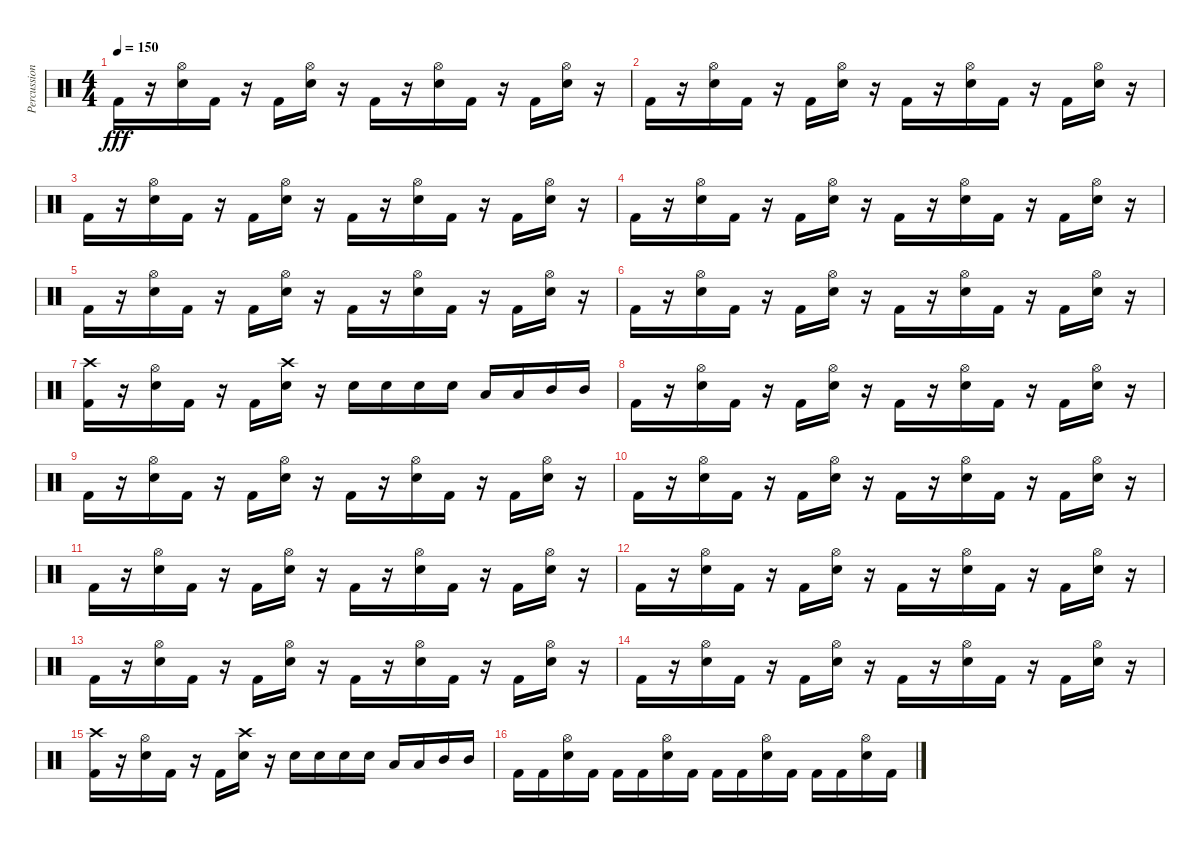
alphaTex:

\track ("Percussion" "Percussion") {instrument percussion}
\staff {score}
\articulation defaults
\ts (4 4)
\tempo 150
\clef neutral
\ks c "Kick (hit) 2".16{dy fff}
r.16 ("Snare (hit) 2" "Hi-Hat (open)").16 "Kick (hit) 2".16 r.16 "Kick (hit) 2".16 ("Snare (hit) 2" "Hi-Hat (open)").16 r.16 "Kick (hit) 2".16 r.16 ("Snare (hit) 2" "Hi-Hat (open)").16 "Kick (hit) 2".16 r.16 "Kick (hit) 2".16 ("Snare (hit) 2" "Hi-Hat (open)").16 r.16 |
"Kick (hit) 2".16 r.16 ("Snare (hit) 2" "Hi-Hat (open)").16 "Kick (hit) 2".16 r.16 "Kick (hit) 2".16 ("Snare (hit) 2" "Hi-Hat (open)").16 r.16 "Kick (hit) 2".16 r.16 ("Snare (hit) 2" "Hi-Hat (open)").16 "Kick (hit) 2".16 r.16 "Kick (hit) 2".16 ("Snare (hit) 2" "Hi-Hat (open)").16 r.16 |
"Kick (hit) 2".16 r.16 ("Snare (hit) 2" "Hi-Hat (open)").16 "Kick (hit) 2".16 r.16 "Kick (hit) 2".16 ("Snare (hit) 2" "Hi-Hat (open)").16 r.16 "Kick (hit) 2".16 r.16 ("Snare (hit) 2" "Hi-Hat (open)").16 "Kick (hit) 2".16 r.16 "Kick (hit) 2".16 ("Snare (hit) 2" "Hi-Hat (open)").16 r.16 |
"Kick (hit) 2".16 r.16 ("Snare (hit) 2" "Hi-Hat (open)").16 "Kick (hit) 2".16 r.16 "Kick (hit) 2".16 ("Snare (hit) 2" "Hi-Hat (open)").16 r.16 "Kick (hit) 2".16 r.16 ("Snare (hit) 2" "Hi-Hat (open)").16 "Kick (hit) 2".16 r.16 "Kick (hit) 2".16 ("Snare (hit) 2" "Hi-Hat (open)").16 r.16 |
"Kick (hit) 2".16 r.16 ("Snare (hit) 2" "Hi-Hat (open)").16 "Kick (hit) 2".16 r.16 "Kick (hit) 2".16 ("Snare (hit) 2" "Hi-Hat (open)").16 r.16 "Kick (hit) 2".16 r.16 ("Snare (hit) 2" "Hi-Hat (open)").16 "Kick (hit) 2".16 r.16 "Kick (hit) 2".16 ("Snare (hit) 2" "Hi-Hat (open)").16 r.16 |
"Kick (hit) 2".16 r.16 ("Snare (hit) 2" "Hi-Hat (open)").16 "Kick (hit) 2".16 r.16 "Kick (hit) 2".16 ("Snare (hit) 2" "Hi-Hat (open)").16 r.16 "Kick (hit) 2".16 r.16 ("Snare (hit) 2" "Hi-Hat (open)").16 "Kick (hit) 2".16 r.16 "Kick (hit) 2".16 ("Snare (hit) 2" "Hi-Hat (open)").16 r.16 |
("Kick (hit) 2" "Crash high (hit)").16 r.16 ("Snare (hit) 2" "Hi-Hat (open)").16 "Kick (hit) 2".16 r.16 "Kick (hit) 2".16 ("Snare (hit) 2" "Crash high (hit)").16 r.16 "Snare (hit) 2".16 "Snare (hit) 2".16 "Snare (hit) 2".16 "Snare (hit) 2".16 "Low Tom (hit)".16 "Low Tom (hit)".16 "Mid Tom (hit)".16 "Mid Tom (hit)".16 |
"Kick (hit) 2".16 r.16 ("Snare (hit) 2" "Hi-Hat (open)").16 "Kick (hit) 2".16 r.16 "Kick (hit) 2".16 ("Snare (hit) 2" "Hi-Hat (open)").16 r.16 "Kick (hit) 2".16 r.16 ("Snare (hit) 2" "Hi-Hat (open)").16 "Kick (hit) 2".16 r.16 "Kick (hit) 2".16 ("Snare (hit) 2" "Hi-Hat (open)").16 r.16 |
"Kick (hit) 2".16 r.16 ("Snare (hit) 2" "Hi-Hat (open)").16 "Kick (hit) 2".16 r.16 "Kick (hit) 2".16 ("Snare (hit) 2" "Hi-Hat (open)").16 r.16 "Kick (hit) 2".16 r.16 ("Snare (hit) 2" "Hi-Hat (open)").16 "Kick (hit) 2".16 r.16 "Kick (hit) 2".16 ("Snare (hit) 2" "Hi-Hat (open)").16 r.16 |
"Kick (hit) 2".16 r.16 ("Snare (hit) 2" "Hi-Hat (open)").16 "Kick (hit) 2".16 r.16 "Kick (hit) 2".16 ("Snare (hit) 2" "Hi-Hat (open)").16 r.16 "Kick (hit) 2".16 r.16 ("Snare (hit) 2" "Hi-Hat (open)").16 "Kick (hit) 2".16 r.16 "Kick (hit) 2".16 ("Snare (hit) 2" "Hi-Hat (open)").16 r.16 |
"Kick (hit) 2".16 r.16 ("Snare (hit) 2" "Hi-Hat (open)").16 "Kick (hit) 2".16 r.16 "Kick (hit) 2".16 ("Snare (hit) 2" "Hi-Hat (open)").16 r.16 "Kick (hit) 2".16 r.16 ("Snare (hit) 2" "Hi-Hat (open)").16 "Kick (hit) 2".16 r.16 "Kick (hit) 2".16 ("Snare (hit) 2" "Hi-Hat (open)").16 r.16 |
"Kick (hit) 2".16 r.16 ("Snare (hit) 2" "Hi-Hat (open)").16 "Kick (hit) 2".16 r.16 "Kick (hit) 2".16 ("Snare (hit) 2" "Hi-Hat (open)").16 r.16 "Kick (hit) 2".16 r.16 ("Snare (hit) 2" "Hi-Hat (open)").16 "Kick (hit) 2".16 r.16 "Kick (hit) 2".16 ("Snare (hit) 2" "Hi-Hat (open)").16 r.16 |
"Kick (hit) 2".16 r.16 ("Snare (hit) 2" "Hi-Hat (open)").16 "Kick (hit) 2".16 r.16 "Kick (hit) 2".16 ("Snare (hit) 2" "Hi-Hat (open)").16 r.16 "Kick (hit) 2".16 r.16 ("Snare (hit) 2" "Hi-Hat (open)").16 "Kick (hit) 2".16 r.16 "Kick (hit) 2".16 ("Snare (hit) 2" "Hi-Hat (open)").16 r.16 |
"Kick (hit) 2".16 r.16 ("Snare (hit) 2" "Hi-Hat (open)").16 "Kick (hit) 2".16 r.16 "Kick (hit) 2".16 ("Snare (hit) 2" "Hi-Hat (open)").16 r.16 "Kick (hit) 2".16 r.16 ("Snare (hit) 2" "Hi-Hat (open)").16 "Kick (hit) 2".16 r.16 "Kick (hit) 2".16 ("Snare (hit) 2" "Hi-Hat (open)").16 r.16 |
("Kick (hit) 2" "Crash high (hit)").16 r.16 ("Snare (hit) 2" "Hi-Hat (open)").16 "Kick (hit) 2".16 r.16 "Kick (hit) 2".16 ("Snare (hit) 2" "Crash high (hit)").16 r.16 "Snare (hit) 2".16 "Snare (hit) 2".16 "Snare (hit) 2".16 "Snare (hit) 2".16 "Low Tom (hit)".16 "Low Tom (hit)".16 "Mid Tom (hit)".16 "Mid Tom (hit)".16 |
"Kick (hit) 2".16 "Kick (hit) 2".16 ("Snare (hit) 2" "Hi-Hat (open)").16 "Kick (hit) 2".16 "Kick (hit) 2".16 "Kick (hit) 2".16 ("Snare (hit) 2" "Hi-Hat (open)").16 "Kick (hit) 2".16 "Kick (hit) 2".16 "Kick (hit) 2".16 ("Snare (hit) 2" "Hi-Hat (open)").16 "Kick (hit) 2".16 "Kick (hit) 2".16 "Kick (hit) 2".16 ("Snare (hit) 2" "Hi-Hat (open)").16 "Kick (hit) 2".16
